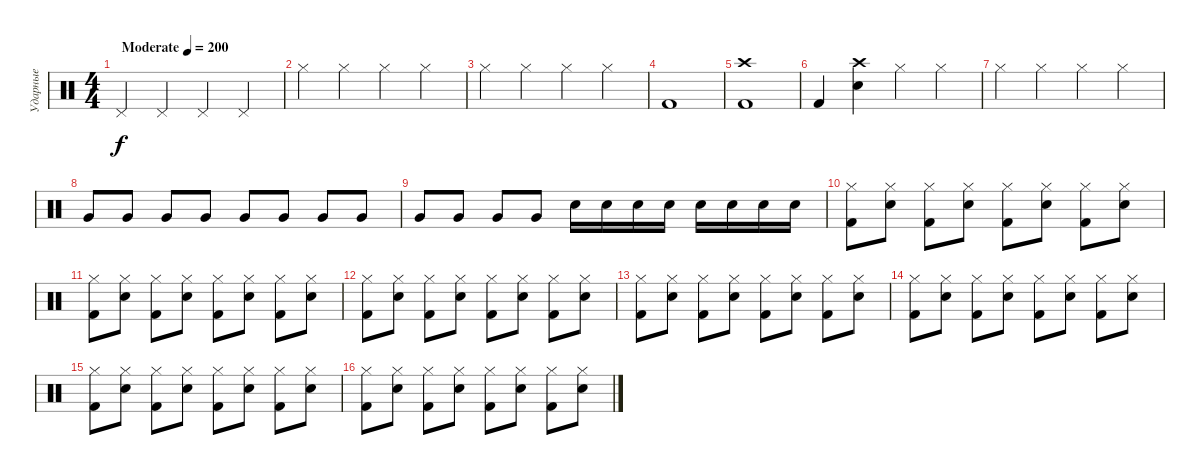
\track ("Ударные" "Ударные") {instrument percussion}
\staff {score}
\articulation defaults
\ts (4 4)
\tempo (200 "Moderate")
\clef neutral
\ks c "Pedal Hi-Hat (hit)".4{dy f} "Pedal Hi-Hat (hit)".4 "Pedal Hi-Hat (hit)".4 "Pedal Hi-Hat (hit)".4
|
"Hi-Hat (closed)".4 "Hi-Hat (closed)".4 "Hi-Hat (closed)".4 "Hi-Hat (closed)".4 |
"Hi-Hat (closed)".4 "Hi-Hat (closed)".4 "Hi-Hat (closed)".4 "Hi-Hat (closed)".4 |
"Kick (hit) 2".1 |
("Crash high (hit)" "Kick (hit) 2").1 |
"Kick (hit) 2".4 ("Electric Snare (hit)" "Crash high (hit)").4 "Hi-Hat (closed)".4 "Hi-Hat (closed)".4 |
"Hi-Hat (closed)".4 "Hi-Hat (closed)".4 "Hi-Hat (closed)".4 "Hi-Hat (closed)".4 |
"Very Low Tom (hit)".8 "Very Low Tom (hit)".8 "Very Low Tom (hit)".8 "Very Low Tom (hit)".8 "Very Low Tom (hit)".8 "Very Low Tom (hit)".8 "Very Low Tom (hit)".8 "Very Low Tom (hit)".8 |
"Very Low Tom (hit)".8 "Very Low Tom (hit)".8 "Very Low Tom (hit)".8 "Very Low Tom (hit)".8 "Electric Snare (hit)".16 "Electric Snare (hit)".16 "Electric Snare (hit)".16 "Electric Snare (hit)".16 "Electric Snare (hit)".16 "Electric Snare (hit)".16 "Electric Snare (hit)".16 "Electric Snare (hit)".16 |
("Kick (hit) 2" "Hi-Hat (closed)").8 ("Electric Snare (hit)" "Hi-Hat (closed)").8 ("Kick (hit) 2" "Hi-Hat (closed)").8 ("Electric Snare (hit)" "Hi-Hat (closed)").8 ("Kick (hit) 2" "Hi-Hat (closed)").8 ("Electric Snare (hit)" "Hi-Hat (closed)").8 ("Kick (hit) 2" "Hi-Hat (closed)").8 ("Electric Snare (hit)" "Hi-Hat (closed)").8 |
("Kick (hit) 2" "Hi-Hat (closed)").8 ("Electric Snare (hit)" "Hi-Hat (closed)").8 ("Kick (hit) 2" "Hi-Hat (closed)").8 ("Electric Snare (hit)" "Hi-Hat (closed)").8 ("Kick (hit) 2" "Hi-Hat (closed)").8 ("Electric Snare (hit)" "Hi-Hat (closed)").8 ("Kick (hit) 2" "Hi-Hat (closed)").8 ("Electric Snare (hit)" "Hi-Hat (closed)").8 |
("Kick (hit) 2" "Hi-Hat (closed)").8 ("Electric Snare (hit)" "Hi-Hat (closed)").8 ("Kick (hit) 2" "Hi-Hat (closed)").8 ("Electric Snare (hit)" "Hi-Hat (closed)").8 ("Kick (hit) 2" "Hi-Hat (closed)").8 ("Electric Snare (hit)" "Hi-Hat (closed)").8 ("Kick (hit) 2" "Hi-Hat (closed)").8 ("Electric Snare (hit)" "Hi-Hat (closed)").8 |
("Kick (hit) 2" "Hi-Hat (closed)").8 ("Electric Snare (hit)" "Hi-Hat (closed)").8 ("Kick (hit) 2" "Hi-Hat (closed)").8 ("Electric Snare (hit)" "Hi-Hat (closed)").8 ("Kick (hit) 2" "Hi-Hat (closed)").8 ("Electric Snare (hit)" "Hi-Hat (closed)").8 ("Kick (hit) 2" "Hi-Hat (closed)").8 ("Electric Snare (hit)" "Hi-Hat (closed)").8 |
("Kick (hit) 2" "Hi-Hat (closed)").8 ("Electric Snare (hit)" "Hi-Hat (closed)").8 ("Kick (hit) 2" "Hi-Hat (closed)").8 ("Electric Snare (hit)" "Hi-Hat (closed)").8 ("Kick (hit) 2" "Hi-Hat (closed)").8 ("Electric Snare (hit)" "Hi-Hat (closed)").8 ("Kick (hit) 2" "Hi-Hat (closed)").8 ("Electric Snare (hit)" "Hi-Hat (closed)").8 |
("Kick (hit) 2" "Hi-Hat (closed)").8 ("Electric Snare (hit)" "Hi-Hat (closed)").8 ("Kick (hit) 2" "Hi-Hat (closed)").8 ("Electric Snare (hit)" "Hi-Hat (closed)").8 ("Kick (hit) 2" "Hi-Hat (closed)").8 ("Electric Snare (hit)" "Hi-Hat (closed)").8 ("Kick (hit) 2" "Hi-Hat (closed)").8 ("Electric Snare (hit)" "Hi-Hat (closed)").8 |
("Kick (hit) 2" "Hi-Hat (closed)").8 ("Electric Snare (hit)" "Hi-Hat (closed)").8 ("Kick (hit) 2" "Hi-Hat (closed)").8 ("Electric Snare (hit)" "Hi-Hat (closed)").8 ("Kick (hit) 2" "Hi-Hat (closed)").8 ("Electric Snare (hit)" "Hi-Hat (closed)").8 ("Kick (hit) 2" "Hi-Hat (closed)").8 ("Electric Snare (hit)" "Hi-Hat (closed)").8
